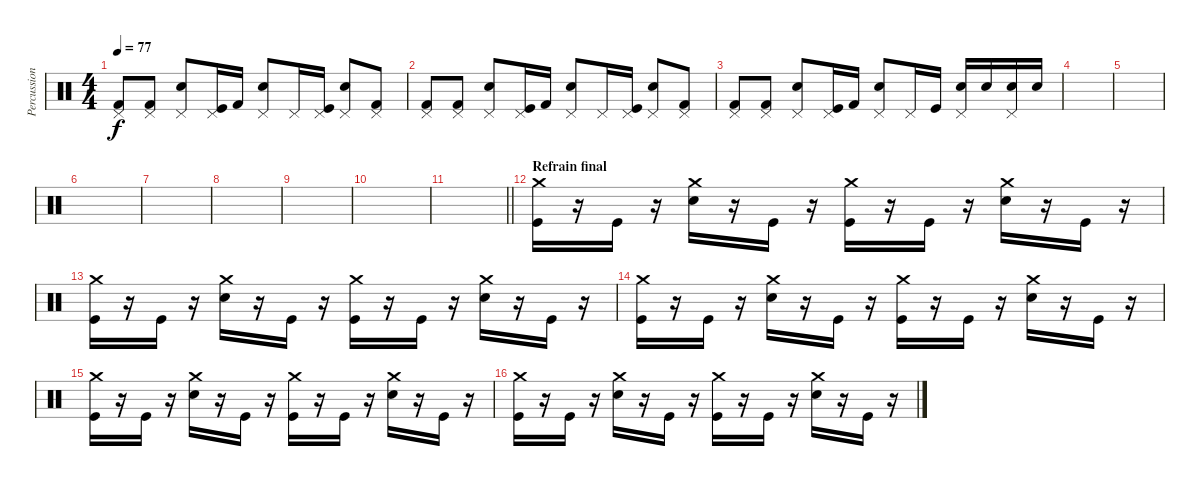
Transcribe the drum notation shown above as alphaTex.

\track ("Percussions" "Percussion") {instrument percussion}
\staff {score}
\articulation defaults
\ts (4 4)
\tempo 77
\clef neutral
\ks c
("Kick (hit) 2" "Pedal Hi-Hat (hit)").8{dy f} ("Kick (hit) 2" "Pedal Hi-Hat (hit)").8 ("Electric Snare (hit)" "Pedal Hi-Hat (hit)").8 ("Kick (hit)" "Pedal Hi-Hat (hit)").16 "Kick (hit) 2".16 ("Electric Snare (hit)" "Pedal Hi-Hat (hit)").8 "Pedal Hi-Hat (hit)".16 ("Kick (hit)" "Pedal Hi-Hat (hit)").16 ("Electric Snare (hit)" "Pedal Hi-Hat (hit)").8 ("Kick (hit) 2" "Pedal Hi-Hat (hit)").8 |
("Kick (hit) 2" "Pedal Hi-Hat (hit)").8 ("Kick (hit) 2" "Pedal Hi-Hat (hit)").8 ("Electric Snare (hit)" "Pedal Hi-Hat (hit)").8 ("Kick (hit)" "Pedal Hi-Hat (hit)").16 "Kick (hit) 2".16 ("Electric Snare (hit)" "Pedal Hi-Hat (hit)").8 "Pedal Hi-Hat (hit)".16 ("Kick (hit)" "Pedal Hi-Hat (hit)").16 ("Electric Snare (hit)" "Pedal Hi-Hat (hit)").8 ("Kick (hit) 2" "Pedal Hi-Hat (hit)").8 |
("Kick (hit) 2" "Pedal Hi-Hat (hit)").8 ("Kick (hit) 2" "Pedal Hi-Hat (hit)").8 ("Electric Snare (hit)" "Pedal Hi-Hat (hit)").8 ("Kick (hit)" "Pedal Hi-Hat (hit)").16 "Kick (hit) 2".16 ("Electric Snare (hit)" "Pedal Hi-Hat (hit)").8 "Pedal Hi-Hat (hit)".16 "Kick (hit)".16 ("Electric Snare (hit)" "Pedal Hi-Hat (hit)").16 "Electric Snare (hit)".16 ("Electric Snare (hit)" "Pedal Hi-Hat (hit)").16 "Electric Snare (hit)".16 |
|
|
|
|
|
|
|
\barLineRight lightlight
|
\section ("" "Refrain final")
("Kick (hit)" "Crash medium (hit)").16 r.16 "Kick (hit)".16 r.16 ("Electric Snare (hit)" "Crash medium (hit)").16 r.16 "Kick (hit)".16 r.16 ("Kick (hit)" "Crash medium (hit)").16 r.16 "Kick (hit)".16 r.16 ("Electric Snare (hit)" "Crash medium (hit)").16 r.16 "Kick (hit)".16 r.16 |
("Kick (hit)" "Crash medium (hit)").16 r.16 "Kick (hit)".16 r.16 ("Electric Snare (hit)" "Crash medium (hit)").16 r.16 "Kick (hit)".16 r.16 ("Kick (hit)" "Crash medium (hit)").16 r.16 "Kick (hit)".16 r.16 ("Electric Snare (hit)" "Crash medium (hit)").16 r.16 "Kick (hit)".16 r.16 |
("Kick (hit)" "Crash medium (hit)").16 r.16 "Kick (hit)".16 r.16 ("Electric Snare (hit)" "Crash medium (hit)").16 r.16 "Kick (hit)".16 r.16 ("Kick (hit)" "Crash medium (hit)").16 r.16 "Kick (hit)".16 r.16 ("Electric Snare (hit)" "Crash medium (hit)").16 r.16 "Kick (hit)".16 r.16 |
("Kick (hit)" "Crash medium (hit)").16 r.16 "Kick (hit)".16 r.16 ("Electric Snare (hit)" "Crash medium (hit)").16 r.16 "Kick (hit)".16 r.16 ("Kick (hit)" "Crash medium (hit)").16 r.16 "Kick (hit)".16 r.16 ("Electric Snare (hit)" "Crash medium (hit)").16 r.16 "Kick (hit)".16 r.16 |
("Kick (hit)" "Crash medium (hit)").16 r.16 "Kick (hit)".16 r.16 ("Electric Snare (hit)" "Crash medium (hit)").16 r.16 "Kick (hit)".16 r.16 ("Kick (hit)" "Crash medium (hit)").16 r.16 "Kick (hit)".16 r.16 ("Electric Snare (hit)" "Crash medium (hit)").16 r.16 "Kick (hit)".16 r.16
